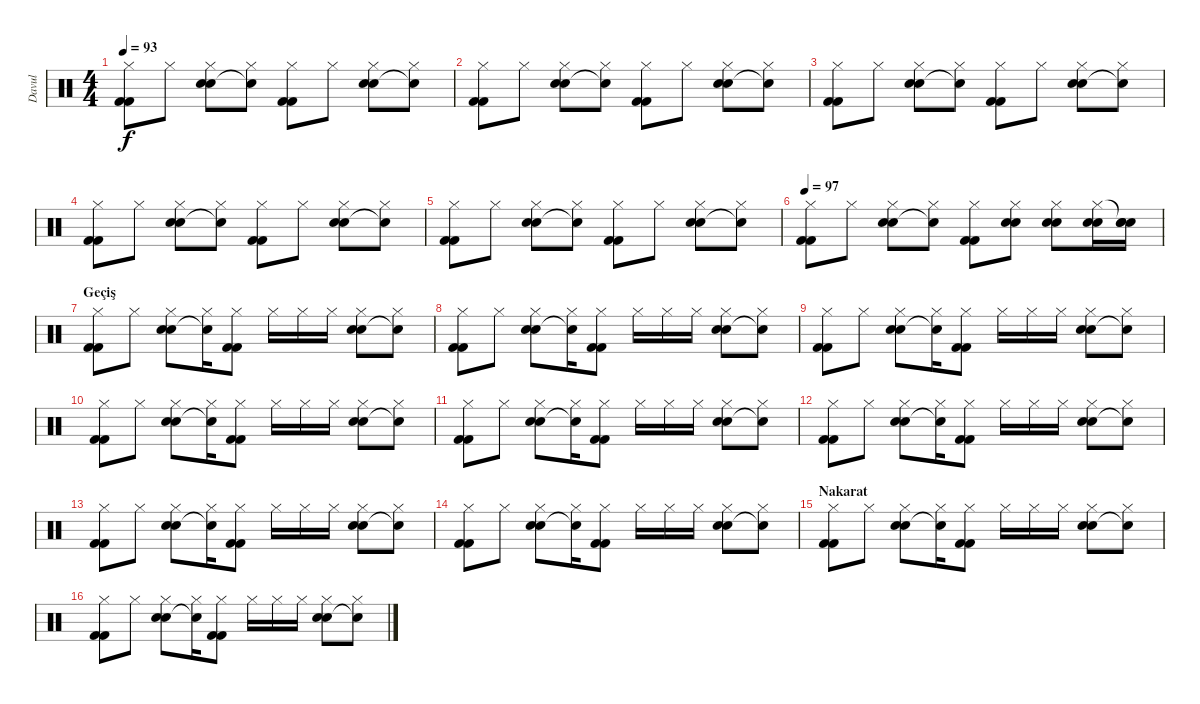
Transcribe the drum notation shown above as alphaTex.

\track ("Davul" "Davul") {instrument percussion}
\staff {score}
\articulation defaults
\ts (4 4)
\tempo 93
\clef neutral
\ks c
("Hi-Hat (closed)" "Kick (hit) 2" "Kick (hit) 2").8{dy f} "Hi-Hat (closed)".8 ("Hi-Hat (closed)" "Snare (hit) 2" "Snare (hit) 2").8 ("Hi-Hat (closed)" "Snare (hit)"{t}).8 ("Hi-Hat (closed)" "Kick (hit) 2" "Kick (hit) 2").8 "Hi-Hat (closed)".8 ("Hi-Hat (closed)" "Snare (hit) 2" "Snare (hit) 2").8 ("Hi-Hat (closed)" "Snare (hit)"{t}).8 |
("Hi-Hat (closed)" "Kick (hit) 2" "Kick (hit) 2").8 "Hi-Hat (closed)".8 ("Hi-Hat (closed)" "Snare (hit) 2" "Snare (hit) 2").8 ("Hi-Hat (closed)" "Snare (hit)"{t}).8 ("Hi-Hat (closed)" "Kick (hit) 2" "Kick (hit) 2").8 "Hi-Hat (closed)".8 ("Hi-Hat (closed)" "Snare (hit) 2" "Snare (hit) 2").8 ("Hi-Hat (closed)" "Snare (hit)"{t}).8 |
("Hi-Hat (closed)" "Kick (hit) 2" "Kick (hit) 2").8 "Hi-Hat (closed)".8 ("Hi-Hat (closed)" "Snare (hit) 2" "Snare (hit) 2").8 ("Hi-Hat (closed)" "Snare (hit)"{t}).8 ("Hi-Hat (closed)" "Kick (hit) 2" "Kick (hit) 2").8 "Hi-Hat (closed)".8 ("Hi-Hat (closed)" "Snare (hit) 2" "Snare (hit) 2").8 ("Hi-Hat (closed)" "Snare (hit)"{t}).8 |
("Hi-Hat (closed)" "Kick (hit) 2" "Kick (hit) 2").8 "Hi-Hat (closed)".8 ("Hi-Hat (closed)" "Snare (hit) 2" "Snare (hit) 2").8 ("Hi-Hat (closed)" "Snare (hit)"{t}).8 ("Hi-Hat (closed)" "Kick (hit) 2" "Kick (hit) 2").8 "Hi-Hat (closed)".8 ("Hi-Hat (closed)" "Snare (hit) 2" "Snare (hit) 2").8 ("Hi-Hat (closed)" "Snare (hit)"{t}).8 |
("Hi-Hat (closed)" "Kick (hit) 2" "Kick (hit) 2").8 "Hi-Hat (closed)".8 ("Hi-Hat (closed)" "Snare (hit) 2" "Snare (hit) 2").8 ("Hi-Hat (closed)" "Snare (hit)"{t}).8 ("Hi-Hat (closed)" "Kick (hit) 2" "Kick (hit) 2").8 "Hi-Hat (closed)".8 ("Hi-Hat (closed)" "Snare (hit) 2" "Snare (hit) 2").8 ("Hi-Hat (closed)" "Snare (hit)"{t}).8 |
\tempo 97
("Hi-Hat (closed)" "Kick (hit) 2" "Kick (hit) 2").8 "Hi-Hat (closed)".8 ("Hi-Hat (closed)" "Snare (hit) 2" "Snare (hit) 2").8 ("Hi-Hat (closed)" "Snare (hit)"{t}).8 ("Hi-Hat (closed)" "Kick (hit) 2" "Kick (hit) 2").8 ("Hi-Hat (closed)" "Snare (hit) 2" "Snare (hit) 2").8 ("Hi-Hat (closed)" "Snare (hit) 2" "Snare (hit) 2").8 ("Hi-Hat (closed)" "Snare (hit) 2" "Snare (hit) 2").16 ("Snare (hit)"{t} "Snare (hit) 2" "Snare (hit) 2").16 |
\section ("" "Geçiş")
("Hi-Hat (closed)" "Kick (hit) 2" "Kick (hit) 2").8 "Hi-Hat (closed)".8 ("Hi-Hat (closed)" "Snare (hit) 2" "Snare (hit) 2").8 ("Hi-Hat (closed)" "Snare (hit)"{t}).16 ("Hi-Hat (closed)" "Kick (hit) 2" "Kick (hit) 2").8 "Hi-Hat (closed)".16 "Hi-Hat (closed)".16 "Hi-Hat (closed)".16 ("Hi-Hat (closed)" "Snare (hit) 2" "Snare (hit) 2").8 ("Hi-Hat (closed)" "Snare (hit)"{t}).8 |
("Hi-Hat (closed)" "Kick (hit) 2" "Kick (hit) 2").8 "Hi-Hat (closed)".8 ("Hi-Hat (closed)" "Snare (hit) 2" "Snare (hit) 2").8 ("Hi-Hat (closed)" "Snare (hit)"{t}).16 ("Hi-Hat (closed)" "Kick (hit) 2" "Kick (hit) 2").8 "Hi-Hat (closed)".16 "Hi-Hat (closed)".16 "Hi-Hat (closed)".16 ("Hi-Hat (closed)" "Snare (hit) 2" "Snare (hit) 2").8 ("Hi-Hat (closed)" "Snare (hit)"{t}).8 |
("Hi-Hat (closed)" "Kick (hit) 2" "Kick (hit) 2").8 "Hi-Hat (closed)".8 ("Hi-Hat (closed)" "Snare (hit) 2" "Snare (hit) 2").8 ("Hi-Hat (closed)" "Snare (hit)"{t}).16 ("Hi-Hat (closed)" "Kick (hit) 2" "Kick (hit) 2").8 "Hi-Hat (closed)".16 "Hi-Hat (closed)".16 "Hi-Hat (closed)".16 ("Hi-Hat (closed)" "Snare (hit) 2" "Snare (hit) 2").8 ("Hi-Hat (closed)" "Snare (hit)"{t}).8 |
("Hi-Hat (closed)" "Kick (hit) 2" "Kick (hit) 2").8 "Hi-Hat (closed)".8 ("Hi-Hat (closed)" "Snare (hit) 2" "Snare (hit) 2").8 ("Hi-Hat (closed)" "Snare (hit)"{t}).16 ("Hi-Hat (closed)" "Kick (hit) 2" "Kick (hit) 2").8 "Hi-Hat (closed)".16 "Hi-Hat (closed)".16 "Hi-Hat (closed)".16 ("Hi-Hat (closed)" "Snare (hit) 2" "Snare (hit) 2").8 ("Hi-Hat (closed)" "Snare (hit)"{t}).8 |
("Hi-Hat (closed)" "Kick (hit) 2" "Kick (hit) 2").8 "Hi-Hat (closed)".8 ("Hi-Hat (closed)" "Snare (hit) 2" "Snare (hit) 2").8 ("Hi-Hat (closed)" "Snare (hit)"{t}).16 ("Hi-Hat (closed)" "Kick (hit) 2" "Kick (hit) 2").8 "Hi-Hat (closed)".16 "Hi-Hat (closed)".16 "Hi-Hat (closed)".16 ("Hi-Hat (closed)" "Snare (hit) 2" "Snare (hit) 2").8 ("Hi-Hat (closed)" "Snare (hit)"{t}).8 |
("Hi-Hat (closed)" "Kick (hit) 2" "Kick (hit) 2").8 "Hi-Hat (closed)".8 ("Hi-Hat (closed)" "Snare (hit) 2" "Snare (hit) 2").8 ("Hi-Hat (closed)" "Snare (hit)"{t}).16 ("Hi-Hat (closed)" "Kick (hit) 2" "Kick (hit) 2").8 "Hi-Hat (closed)".16 "Hi-Hat (closed)".16 "Hi-Hat (closed)".16 ("Hi-Hat (closed)" "Snare (hit) 2" "Snare (hit) 2").8 ("Hi-Hat (closed)" "Snare (hit)"{t}).8 |
("Hi-Hat (closed)" "Kick (hit) 2" "Kick (hit) 2").8 "Hi-Hat (closed)".8 ("Hi-Hat (closed)" "Snare (hit) 2" "Snare (hit) 2").8 ("Hi-Hat (closed)" "Snare (hit)"{t}).16 ("Hi-Hat (closed)" "Kick (hit) 2" "Kick (hit) 2").8 "Hi-Hat (closed)".16 "Hi-Hat (closed)".16 "Hi-Hat (closed)".16 ("Hi-Hat (closed)" "Snare (hit) 2" "Snare (hit) 2").8 ("Hi-Hat (closed)" "Snare (hit)"{t}).8 |
("Hi-Hat (closed)" "Kick (hit) 2" "Kick (hit) 2").8 "Hi-Hat (closed)".8 ("Hi-Hat (closed)" "Snare (hit) 2" "Snare (hit) 2").8 ("Hi-Hat (closed)" "Snare (hit)"{t}).16 ("Hi-Hat (closed)" "Kick (hit) 2" "Kick (hit) 2").8 "Hi-Hat (closed)".16 "Hi-Hat (closed)".16 "Hi-Hat (closed)".16 ("Hi-Hat (closed)" "Snare (hit) 2" "Snare (hit) 2").8 ("Hi-Hat (closed)" "Snare (hit)"{t}).8 |
\section ("" "Nakarat")
("Hi-Hat (closed)" "Kick (hit) 2" "Kick (hit) 2").8 "Hi-Hat (closed)".8 ("Hi-Hat (closed)" "Snare (hit) 2" "Snare (hit) 2").8 ("Hi-Hat (closed)" "Snare (hit)"{t}).16 ("Hi-Hat (closed)" "Kick (hit) 2" "Kick (hit) 2").8 "Hi-Hat (closed)".16 "Hi-Hat (closed)".16 "Hi-Hat (closed)".16 ("Hi-Hat (closed)" "Snare (hit) 2" "Snare (hit) 2").8 ("Hi-Hat (closed)" "Snare (hit)"{t}).8 |
("Hi-Hat (closed)" "Kick (hit) 2" "Kick (hit) 2").8 "Hi-Hat (closed)".8 ("Hi-Hat (closed)" "Snare (hit) 2" "Snare (hit) 2").8 ("Hi-Hat (closed)" "Snare (hit)"{t}).16 ("Hi-Hat (closed)" "Kick (hit) 2" "Kick (hit) 2").8 "Hi-Hat (closed)".16 "Hi-Hat (closed)".16 "Hi-Hat (closed)".16 ("Hi-Hat (closed)" "Snare (hit) 2" "Snare (hit) 2").8 ("Hi-Hat (closed)" "Snare (hit)"{t}).8
